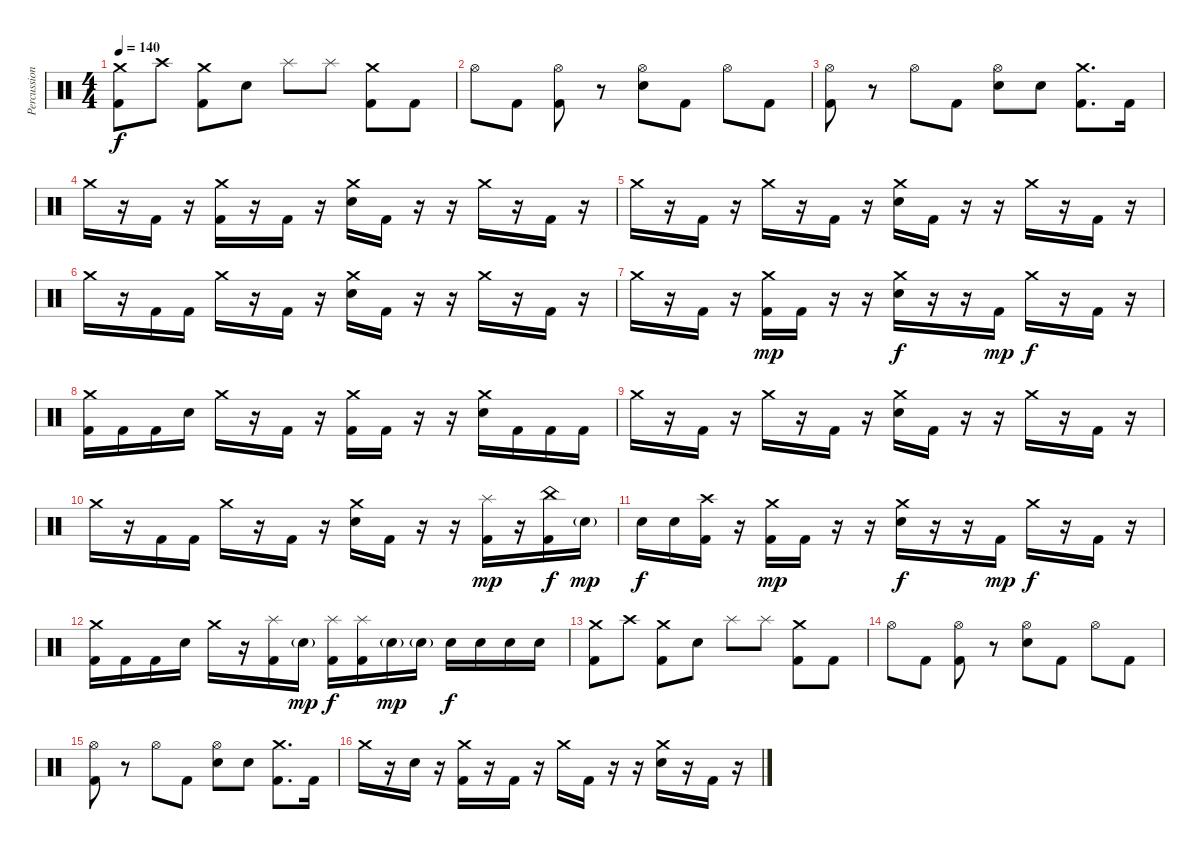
\track ("Percussion" "Percussion") {instrument percussion}
\staff {score}
\articulation defaults
\ts (4 4)
\tempo 140
\clef neutral
\ks c
("Crash medium (hit)" "Kick (hit) 2").8{dy f} "Crash high (hit)".8 ("Crash medium (hit)" "Kick (hit) 2").8 "Electric Snare (hit)".8 "Splash (hit)".8 "Splash (hit)".8 ("Crash medium (hit)" "Kick (hit) 2").8 "Kick (hit) 2".8 |
"Hi-Hat (open)".8 "Kick (hit) 2".8 ("Hi-Hat (open)" "Kick (hit) 2").8 r.8 ("Hi-Hat (open)" "Electric Snare (hit)").8 "Kick (hit) 2".8 "Hi-Hat (open)".8 "Kick (hit) 2".8 |
("Hi-Hat (open)" "Kick (hit) 2").8 r.8 "Hi-Hat (open)".8 "Kick (hit) 2".8 ("Hi-Hat (open)" "Electric Snare (hit)").8 "Electric Snare (hit)".8 ("Crash medium (hit)" "Kick (hit) 2").8{d} "Kick (hit) 2".16 |
"Crash medium (hit)".16 r.16 "Kick (hit) 2".16 r.16 ("Crash medium (hit)" "Kick (hit) 2").16 r.16 "Kick (hit) 2".16 r.16 ("Crash medium (hit)" "Electric Snare (hit)").16 "Kick (hit) 2".16 r.16 r.16 "Crash medium (hit)".16 r.16 "Kick (hit) 2".16 r.16 |
"Crash medium (hit)".16 r.16 "Kick (hit) 2".16 r.16 "Crash medium (hit)".16 r.16 "Kick (hit) 2".16 r.16 ("Crash medium (hit)" "Electric Snare (hit)").16 "Kick (hit) 2".16 r.16 r.16 "Crash medium (hit)".16 r.16 "Kick (hit) 2".16 r.16 |
"Crash medium (hit)".16 r.16 "Kick (hit) 2".16 "Kick (hit) 2".16 "Crash medium (hit)".16 r.16 "Kick (hit) 2".16 r.16 ("Crash medium (hit)" "Electric Snare (hit)").16 "Kick (hit) 2".16 r.16 r.16 "Crash medium (hit)".16 r.16 "Kick (hit) 2".16 r.16 |
"Crash medium (hit)".16 r.16 "Kick (hit) 2".16 r.16 ("Crash medium (hit)" "Kick (hit) 2").16{dy mp} "Kick (hit) 2".16 r.16 r.16 ("Crash medium (hit)" "Electric Snare (hit)").16{dy f} r.16 r.16 "Kick (hit) 2".16{dy mp} "Crash medium (hit)".16{dy f} r.16 "Kick (hit) 2".16 r.16 |
("Crash medium (hit)" "Kick (hit) 2").16 "Kick (hit) 2".16 "Kick (hit) 2".16 "Electric Snare (hit)".16 "Crash medium (hit)".16 r.16 "Kick (hit) 2".16 r.16 ("Crash medium (hit)" "Kick (hit) 2").16 "Kick (hit) 2".16 r.16 r.16 ("Crash medium (hit)" "Electric Snare (hit)").16 "Kick (hit) 2".16 "Kick (hit) 2".16 "Kick (hit) 2".16 |
"Crash medium (hit)".16 r.16 "Kick (hit) 2".16 r.16 "Crash medium (hit)".16 r.16 "Kick (hit) 2".16 r.16 ("Crash medium (hit)" "Electric Snare (hit)").16 "Kick (hit) 2".16 r.16 r.16 "Crash medium (hit)".16 r.16 "Kick (hit) 2".16 r.16 |
"Crash medium (hit)".16 r.16 "Kick (hit) 2".16 "Kick (hit) 2".16 "Crash medium (hit)".16 r.16 "Kick (hit) 2".16 r.16 ("Crash medium (hit)" "Electric Snare (hit)").16 "Kick (hit) 2".16 r.16 r.16 ("Splash (hit)" "Kick (hit) 2").16{dy mp} r.16 ("China (hit)" "Kick (hit) 2").16{dy f} "Electric Snare (hit)"{g}.16{dy mp} |
"Electric Snare (hit)".16{dy f} "Electric Snare (hit)".16 ("Crash high (hit)" "Kick (hit) 2").16 r.16 ("Crash medium (hit)" "Kick (hit) 2").16{dy mp} "Kick (hit) 2".16 r.16 r.16 ("Crash medium (hit)" "Electric Snare (hit)").16{dy f} r.16 r.16 "Kick (hit) 2".16{dy mp} "Crash medium (hit)".16{dy f} r.16 "Kick (hit) 2".16 r.16 |
("Crash medium (hit)" "Kick (hit) 2").16 "Kick (hit) 2".16 "Kick (hit) 2".16 "Electric Snare (hit)".16 "Crash medium (hit)".16 r.16 ("Splash (hit)" "Kick (hit) 2").16 "Electric Snare (hit)"{g}.16{dy mp} ("Splash (hit)" "Kick (hit) 2").16{dy f} ("Splash (hit)" "Kick (hit) 2").16 "Electric Snare (hit)"{g}.16{dy mp} "Electric Snare (hit)"{g}.16 "Electric Snare (hit)".16{dy f} "Electric Snare (hit)".16 "Electric Snare (hit)".16 "Electric Snare (hit)".16 |
("Crash medium (hit)" "Kick (hit) 2").8 "Crash high (hit)".8 ("Crash medium (hit)" "Kick (hit) 2").8 "Electric Snare (hit)".8 "Splash (hit)".8 "Splash (hit)".8 ("Crash medium (hit)" "Kick (hit) 2").8 "Kick (hit) 2".8 |
"Hi-Hat (open)".8 "Kick (hit) 2".8 ("Hi-Hat (open)" "Kick (hit) 2").8 r.8 ("Hi-Hat (open)" "Electric Snare (hit)").8 "Kick (hit) 2".8 "Hi-Hat (open)".8 "Kick (hit) 2".8 |
("Hi-Hat (open)" "Kick (hit) 2").8 r.8 "Hi-Hat (open)".8 "Kick (hit) 2".8 ("Hi-Hat (open)" "Electric Snare (hit)").8 "Electric Snare (hit)".8 ("Crash medium (hit)" "Kick (hit) 2").8{d} "Kick (hit) 2".16 |
"Crash medium (hit)".16 r.16 "Electric Snare (hit)".16 r.16 ("Crash medium (hit)" "Kick (hit) 2").16 r.16 "Kick (hit) 2".16 r.16 "Crash medium (hit)".16 "Kick (hit) 2".16 r.16 r.16 ("Crash medium (hit)" "Electric Snare (hit)").16 r.16 "Kick (hit) 2".16 r.16
